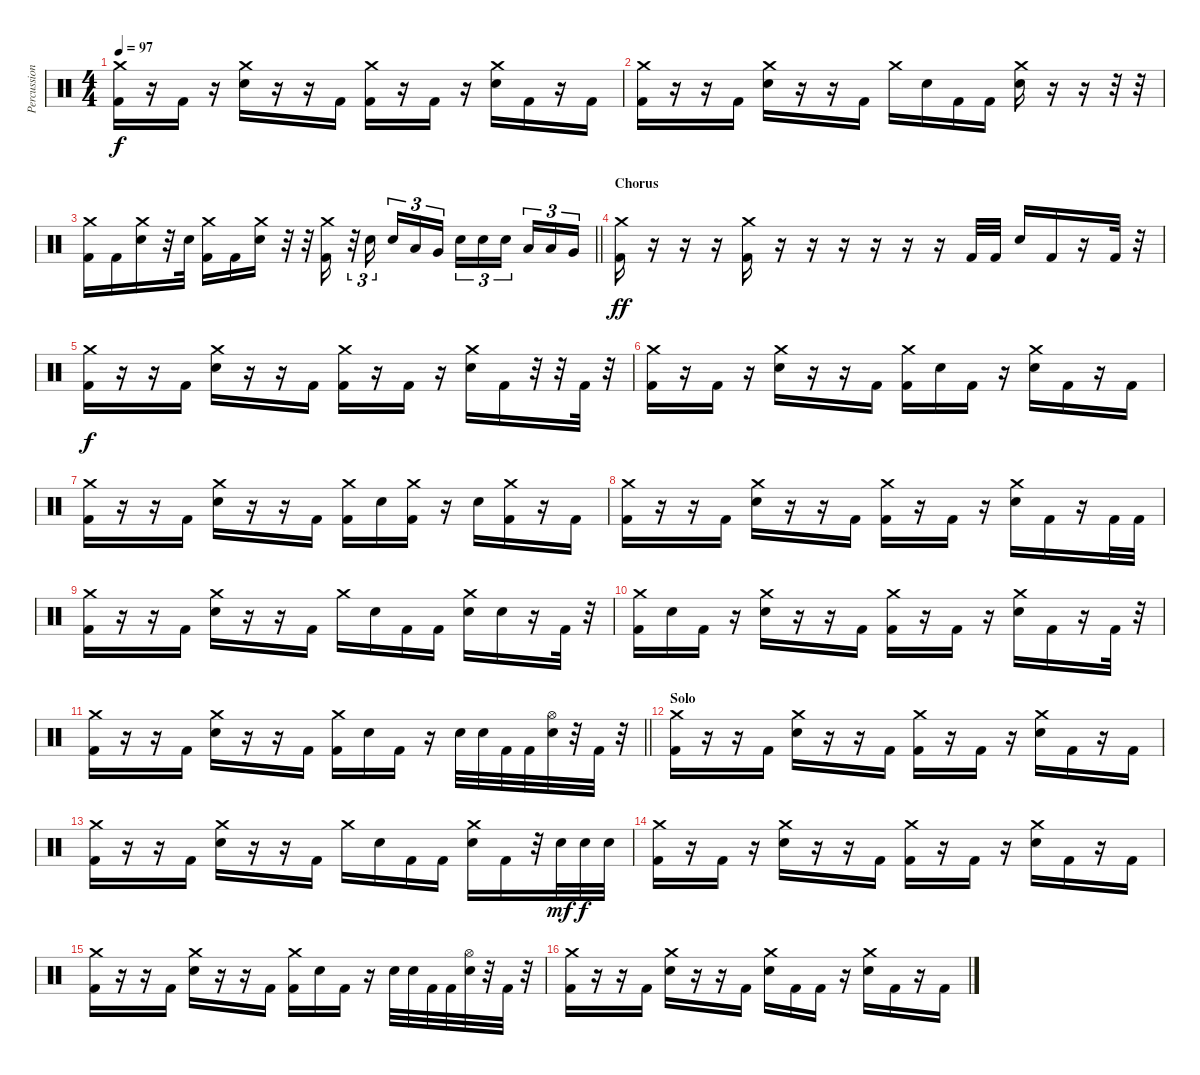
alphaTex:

\track ("Percussion" "Percussion") {instrument percussion}
\staff {score}
\articulation defaults
\ts (4 4)
\tempo 97
\clef neutral
\ks c
("Crash medium (hit)" "Kick (hit) 2").16{dy f} r.16 "Kick (hit) 2".16 r.16 ("Crash medium (hit)" "Electric Snare (hit)").16 r.16 r.16 "Kick (hit) 2".16 ("Crash medium (hit)" "Kick (hit) 2").16 r.16 "Kick (hit) 2".16 r.16 ("Crash medium (hit)" "Electric Snare (hit)").16 "Kick (hit) 2".16 r.16 "Kick (hit) 2".16 |
("Crash medium (hit)" "Kick (hit) 2").16 r.16 r.16 "Kick (hit) 2".16 ("Crash medium (hit)" "Electric Snare (hit)").16 r.16 r.16 "Kick (hit) 2".16 "Crash medium (hit)".16 "Electric Snare (hit)".16 "Kick (hit) 2".16 "Kick (hit) 2".16 ("Crash medium (hit)" "Electric Snare (hit)").16 r.16 r.16 r.32 r.32 |
\barLineRight lightlight
("Crash medium (hit)" "Kick (hit) 2").16 "Kick (hit) 2".16 ("Crash medium (hit)" "Electric Snare (hit)").16 r.32 "Electric Snare (hit)".32 ("Crash medium (hit)" "Kick (hit) 2").16 "Kick (hit) 2".16 ("Crash medium (hit)" "Electric Snare (hit)").16 r.32 r.32 ("Crash medium (hit)" "Kick (hit) 2").16 r.32{tu (3 2)} "Electric Snare (hit)".16{tu (3 2) beam splitsecondary} "Electric Snare (hit)".16{tu (3 2)} "Low Tom (hit)".16{tu (3 2)} "Very Low Tom (hit)".16{tu (3 2)} "Electric Snare (hit)".16{tu (3 2)} "Electric Snare (hit)".16{tu (3 2)} "Electric Snare (hit)".16{tu (3 2) beam splitsecondary} "Low Tom (hit)".16{tu (3 2)} "Low Tom (hit)".16{tu (3 2)} "Very Low Tom (hit)".16{tu (3 2)} |
\section ("" "Chorus")
("Crash medium (hit)" "Kick (hit) 2").16{dy ff} r.16 r.16 r.16 ("Crash medium (hit)" "Kick (hit) 2").16 r.16 r.16 r.16 r.16 r.16 r.16 "Kick (hit) 2".32 "Kick (hit) 2".32 "Electric Snare (hit)".16 "Kick (hit) 2".16 r.16 "Kick (hit) 2".32 r.32 |
("Crash medium (hit)" "Kick (hit) 2").16{dy f} r.16 r.16 "Kick (hit) 2".16 ("Crash medium (hit)" "Electric Snare (hit)").16 r.16 r.16 "Kick (hit) 2".16 ("Crash medium (hit)" "Kick (hit) 2").16 r.16 "Kick (hit) 2".16 r.16 ("Crash medium (hit)" "Electric Snare (hit)").16 "Kick (hit) 2".16 r.32 r.32 "Kick (hit) 2".32 r.32 |
("Crash medium (hit)" "Kick (hit) 2").16 r.16 "Kick (hit) 2".16 r.16 ("Crash medium (hit)" "Electric Snare (hit)").16 r.16 r.16 "Kick (hit) 2".16 ("Crash medium (hit)" "Kick (hit) 2").16 "Electric Snare (hit)".16 "Kick (hit) 2".16 r.16 ("Crash medium (hit)" "Electric Snare (hit)").16 "Kick (hit) 2".16 r.16 "Kick (hit) 2".16 |
("Crash medium (hit)" "Kick (hit) 2").16 r.16 r.16 "Kick (hit) 2".16 ("Crash medium (hit)" "Electric Snare (hit)").16 r.16 r.16 "Kick (hit) 2".16 ("Crash medium (hit)" "Kick (hit) 2").16 "Electric Snare (hit)".16 ("Crash medium (hit)" "Kick (hit) 2").16 r.16 "Electric Snare (hit)".16 ("Crash medium (hit)" "Kick (hit) 2").16 r.16 "Kick (hit) 2".16 |
("Crash medium (hit)" "Kick (hit) 2").16 r.16 r.16 "Kick (hit) 2".16 ("Crash medium (hit)" "Electric Snare (hit)").16 r.16 r.16 "Kick (hit) 2".16 ("Crash medium (hit)" "Kick (hit) 2").16 r.16 "Kick (hit) 2".16 r.16 ("Crash medium (hit)" "Electric Snare (hit)").16 "Kick (hit) 2".16 r.16 "Kick (hit) 2".32 "Kick (hit) 2".32 |
("Crash medium (hit)" "Kick (hit) 2").16 r.16 r.16 "Kick (hit) 2".16 ("Crash medium (hit)" "Electric Snare (hit)").16 r.16 r.16 "Kick (hit) 2".16 "Crash medium (hit)".16 "Electric Snare (hit)".16 "Kick (hit) 2".16 "Kick (hit) 2".16 ("Crash medium (hit)" "Electric Snare (hit)").16 "Electric Snare (hit)".16 r.16 "Kick (hit) 2".32 r.32 |
("Crash medium (hit)" "Kick (hit) 2").16 "Electric Snare (hit)".16 "Kick (hit) 2".16 r.16 ("Crash medium (hit)" "Electric Snare (hit)").16 r.16 r.16 "Kick (hit) 2".16 ("Crash medium (hit)" "Kick (hit) 2").16 r.16 "Kick (hit) 2".16 r.16 ("Crash medium (hit)" "Electric Snare (hit)").16 "Kick (hit) 2".16 r.16 "Kick (hit) 2".32 r.32 |
\barLineRight lightlight
("Crash medium (hit)" "Kick (hit) 2").16 r.16 r.16 "Kick (hit) 2".16 ("Crash medium (hit)" "Electric Snare (hit)").16 r.16 r.16 "Kick (hit) 2".16 ("Crash medium (hit)" "Kick (hit) 2").16 "Electric Snare (hit)".16 "Kick (hit) 2".16 r.16 "Electric Snare (hit)".32 "Electric Snare (hit)".32 "Kick (hit) 2".32 "Kick (hit) 2".32 ("Hi-Hat (open)" "Electric Snare (hit)").32 r.32 "Kick (hit) 2".32 r.32 |
\section ("" "Solo")
("Crash medium (hit)" "Kick (hit) 2").16 r.16 r.16 "Kick (hit) 2".16 ("Crash medium (hit)" "Electric Snare (hit)").16 r.16 r.16 "Kick (hit) 2".16 ("Crash medium (hit)" "Kick (hit) 2").16 r.16 "Kick (hit) 2".16 r.16 ("Crash medium (hit)" "Electric Snare (hit)").16 "Kick (hit) 2".16 r.16 "Kick (hit) 2".16 |
("Crash medium (hit)" "Kick (hit) 2").16 r.16 r.16 "Kick (hit) 2".16 ("Crash medium (hit)" "Electric Snare (hit)").16 r.16 r.16 "Kick (hit) 2".16 "Crash medium (hit)".16 "Electric Snare (hit)".16 "Kick (hit) 2".16 "Kick (hit) 2".16 ("Crash medium (hit)" "Electric Snare (hit)").16 "Kick (hit) 2".16 r.32 "Electric Snare (hit)".32{dy mf} "Electric Snare (hit)".32{dy f} "Electric Snare (hit)".32 |
("Crash medium (hit)" "Kick (hit) 2").16 r.16 "Kick (hit) 2".16 r.16 ("Crash medium (hit)" "Electric Snare (hit)").16 r.16 r.16 "Kick (hit) 2".16 ("Crash medium (hit)" "Kick (hit) 2").16 r.16 "Kick (hit) 2".16 r.16 ("Crash medium (hit)" "Electric Snare (hit)").16 "Kick (hit) 2".16 r.16 "Kick (hit) 2".16 |
("Crash medium (hit)" "Kick (hit) 2").16 r.16 r.16 "Kick (hit) 2".16 ("Crash medium (hit)" "Electric Snare (hit)").16 r.16 r.16 "Kick (hit) 2".16 ("Crash medium (hit)" "Kick (hit) 2").16 "Electric Snare (hit)".16 "Kick (hit) 2".16 r.16 "Electric Snare (hit)".32 "Electric Snare (hit)".32 "Kick (hit) 2".32 "Kick (hit) 2".32 ("Hi-Hat (open)" "Electric Snare (hit)").32 r.32 "Kick (hit) 2".32 r.32 |
("Crash medium (hit)" "Kick (hit) 2").16 r.16 r.16 "Kick (hit) 2".16 ("Crash medium (hit)" "Electric Snare (hit)").16 r.16 r.16 "Kick (hit) 2".16 ("Crash medium (hit)" "Electric Snare (hit)").16 "Kick (hit) 2".16 "Kick (hit) 2".16 r.16 ("Crash medium (hit)" "Electric Snare (hit)").16 "Kick (hit) 2".16 r.16 "Kick (hit) 2".16
